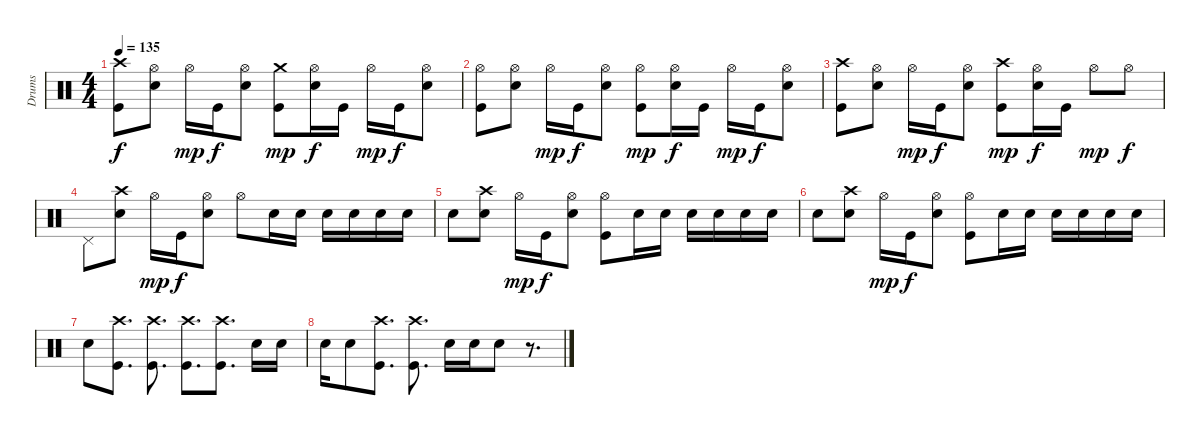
\track ("Drums" "Drums") {instrument percussion}
\staff {score}
\articulation defaults
\ts (4 4)
\tempo 135
\clef neutral
\ks c
("Crash high (hit)" "Kick (hit)").8{dy f} ("Hi-Hat (open)" "Snare (hit) 2").8 "Hi-Hat (open)".16{dy mp} "Kick (hit)".16{dy f} ("Hi-Hat (open)" "Snare (hit) 2").8 ("Crash medium (hit)" "Kick (hit)").8{dy mp} ("Hi-Hat (open)" "Snare (hit) 2").16{dy f} "Kick (hit)".16 "Hi-Hat (open)".16{dy mp} "Kick (hit)".16{dy f} ("Hi-Hat (open)" "Snare (hit) 2").8 |
("Hi-Hat (open)" "Kick (hit)").8 ("Hi-Hat (open)" "Snare (hit) 2").8 "Hi-Hat (open)".16{dy mp} "Kick (hit)".16{dy f} ("Hi-Hat (open)" "Snare (hit) 2").8 ("Hi-Hat (open)" "Kick (hit)").8{dy mp} ("Hi-Hat (open)" "Snare (hit) 2").16{dy f} "Kick (hit)".16 "Hi-Hat (open)".16{dy mp} "Kick (hit)".16{dy f} ("Hi-Hat (open)" "Snare (hit) 2").8 |
("Crash high (hit)" "Kick (hit)").8 ("Hi-Hat (open)" "Snare (hit) 2").8 "Hi-Hat (open)".16{dy mp} "Kick (hit)".16{dy f} ("Hi-Hat (open)" "Snare (hit) 2").8 ("Crash high (hit)" "Kick (hit)").8{dy mp} ("Hi-Hat (open)" "Snare (hit) 2").16{dy f} "Kick (hit)".16 "Hi-Hat (open)".8{dy mp} "Hi-Hat (open)".8{dy f} |
"Pedal Hi-Hat (hit)".8 ("Crash high (hit)" "Snare (hit) 2").8 "Hi-Hat (open)".16{dy mp} "Kick (hit)".16{dy f} ("Hi-Hat (open)" "Snare (hit) 2").8 "Hi-Hat (open)".8 "Snare (hit) 2".16 "Snare (hit) 2".16 "Snare (hit) 2".16 "Snare (hit) 2".16 "Snare (hit) 2".16 "Snare (hit) 2".16 |
"Snare (hit) 2".8 ("Crash high (hit)" "Snare (hit) 2").8 "Hi-Hat (open)".16{dy mp} "Kick (hit)".16{dy f} ("Hi-Hat (open)" "Snare (hit) 2").8 ("Hi-Hat (open)" "Kick (hit)").8 "Snare (hit) 2".16 "Snare (hit) 2".16 "Snare (hit) 2".16 "Snare (hit) 2".16 "Snare (hit) 2".16 "Snare (hit) 2".16 |
"Snare (hit) 2".8 ("Crash high (hit)" "Snare (hit) 2").8 "Hi-Hat (open)".16{dy mp} "Kick (hit)".16{dy f} ("Hi-Hat (open)" "Snare (hit) 2").8 ("Hi-Hat (open)" "Kick (hit)").8 "Snare (hit) 2".16 "Snare (hit) 2".16 "Snare (hit) 2".16 "Snare (hit) 2".16 "Snare (hit) 2".16 "Snare (hit) 2".16 |
"Snare (hit) 2".8 ("Crash high (hit)" "Kick (hit)").8{d} ("Crash high (hit)" "Kick (hit)").8{d} ("Crash high (hit)" "Kick (hit)").8{d} ("Crash high (hit)" "Kick (hit)").8{d} "Snare (hit) 2".16 "Snare (hit) 2".16 |
"Snare (hit) 2".16 "Snare (hit) 2".8 ("Crash high (hit)" "Kick (hit)").8{d} ("Crash high (hit)" "Kick (hit)").8{d} "Snare (hit) 2".16 "Snare (hit) 2".16 "Snare (hit) 2".8 r.8{d}
